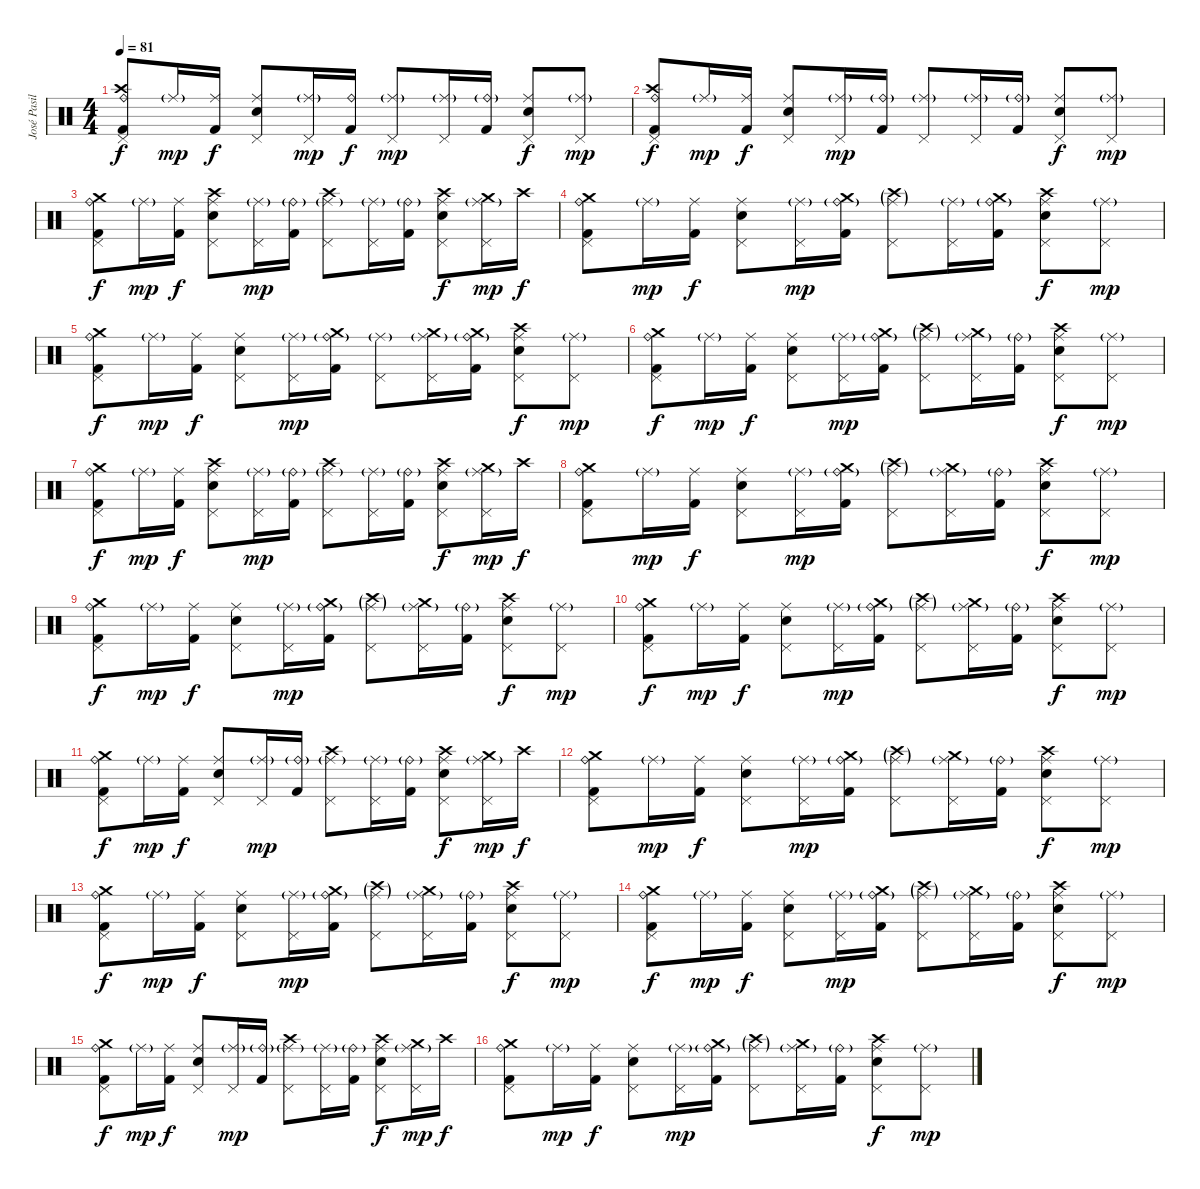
\track ("José Pasillas [Drums]" "José Pasil") {instrument percussion}
\staff {score}
\articulation defaults
\ts (4 4)
\tempo 81
\clef neutral
\ks c
("Kick (hit) 2" "Crash high (hit)" "Ride (bell)" "Pedal Hi-Hat (hit)").8{dy f} "Ride (middle)"{g}.16{dy mp} ("Kick (hit) 2" "Ride (middle)").16{dy f} ("Electric Snare (hit)" "Ride (middle)" "Pedal Hi-Hat (hit)").8 ("Ride (middle)"{g} "Pedal Hi-Hat (hit)").16{dy mp} ("Kick (hit) 2" "Ride (bell)").16{dy f} ("Ride (middle)"{g} "Pedal Hi-Hat (hit)").8{dy mp} ("Ride (middle)"{g} "Pedal Hi-Hat (hit)").16 ("Kick (hit) 2" "Ride (bell)"{g}).16 ("Electric Snare (hit)" "Ride (middle)" "Pedal Hi-Hat (hit)").8{dy f} ("Ride (middle)"{g} "Pedal Hi-Hat (hit)").8{dy mp} |
("Kick (hit) 2" "Crash high (hit)" "Ride (bell)" "Pedal Hi-Hat (hit)").8{dy f} "Ride (middle)"{g}.16{dy mp} ("Kick (hit) 2" "Ride (middle)").16{dy f} ("Electric Snare (hit)" "Ride (middle)" "Pedal Hi-Hat (hit)").8 ("Ride (middle)"{g} "Pedal Hi-Hat (hit)").16{dy mp} ("Kick (hit) 2" "Ride (bell)"{g}).16 ("Ride (middle)"{g} "Pedal Hi-Hat (hit)").8 ("Ride (middle)"{g} "Pedal Hi-Hat (hit)").16 ("Kick (hit) 2" "Ride (bell)"{g}).16 ("Electric Snare (hit)" "Ride (middle)" "Pedal Hi-Hat (hit)").8{dy f} ("Ride (middle)"{g} "Pedal Hi-Hat (hit)").8{dy mp} |
("Kick (hit) 2" "Crash medium (hit)" "Ride (bell)" "Pedal Hi-Hat (hit)").8{dy f} "Ride (middle)"{g}.16{dy mp} ("Kick (hit) 2" "Ride (middle)").16{dy f} ("Electric Snare (hit)" "Crash high (hit)" "Ride (middle)" "Pedal Hi-Hat (hit)").8 ("Ride (middle)"{g} "Pedal Hi-Hat (hit)").16{dy mp} ("Kick (hit) 2" "Ride (bell)"{g}).16 ("Crash high (hit)" "Ride (middle)"{g} "Pedal Hi-Hat (hit)").8 ("Ride (middle)"{g} "Pedal Hi-Hat (hit)").16 ("Kick (hit) 2" "Ride (bell)"{g}).16 ("Electric Snare (hit)" "Crash high (hit)" "Ride (middle)" "Pedal Hi-Hat (hit)").8{dy f} ("Crash medium (hit)" "Ride (middle)"{g} "Pedal Hi-Hat (hit)").16{dy mp} "Crash high (hit)".16{dy f} |
("Kick (hit) 2" "Crash medium (hit)" "Ride (bell)" "Pedal Hi-Hat (hit)").8 "Ride (middle)"{g}.16{dy mp} ("Kick (hit) 2" "Ride (middle)").16{dy f} ("Electric Snare (hit)" "Ride (middle)" "Pedal Hi-Hat (hit)").8 ("Ride (middle)"{g} "Pedal Hi-Hat (hit)").16{dy mp} ("Kick (hit) 2" "Crash medium (hit)" "Ride (bell)"{g}).16 ("Crash high (hit)"{g} "Ride (middle)"{g} "Pedal Hi-Hat (hit)").8 ("Ride (middle)"{g} "Pedal Hi-Hat (hit)").16 ("Kick (hit) 2" "Crash medium (hit)" "Ride (bell)"{g}).16 ("Electric Snare (hit)" "Crash high (hit)" "Ride (middle)" "Pedal Hi-Hat (hit)").8{dy f} ("Ride (middle)"{g} "Pedal Hi-Hat (hit)").8{dy mp} |
("Kick (hit) 2" "Crash medium (hit)" "Ride (bell)" "Pedal Hi-Hat (hit)").8{dy f} "Ride (middle)"{g}.16{dy mp} ("Kick (hit) 2" "Ride (middle)").16{dy f} ("Electric Snare (hit)" "Ride (middle)" "Pedal Hi-Hat (hit)").8 ("Ride (middle)"{g} "Pedal Hi-Hat (hit)").16{dy mp} ("Kick (hit) 2" "Crash medium (hit)" "Ride (bell)"{g}).16 ("Ride (middle)"{g} "Pedal Hi-Hat (hit)").8 ("Crash medium (hit)" "Ride (middle)"{g} "Pedal Hi-Hat (hit)").16 ("Kick (hit) 2" "Crash medium (hit)" "Ride (bell)"{g}).16 ("Electric Snare (hit)" "Crash high (hit)" "Ride (middle)" "Pedal Hi-Hat (hit)").8{dy f} ("Ride (middle)"{g} "Pedal Hi-Hat (hit)").8{dy mp} |
("Kick (hit) 2" "Crash medium (hit)" "Ride (bell)" "Pedal Hi-Hat (hit)").8{dy f} "Ride (middle)"{g}.16{dy mp} ("Kick (hit) 2" "Ride (middle)").16{dy f} ("Electric Snare (hit)" "Ride (middle)" "Pedal Hi-Hat (hit)").8 ("Ride (middle)"{g} "Pedal Hi-Hat (hit)").16{dy mp} ("Kick (hit) 2" "Crash medium (hit)" "Ride (bell)"{g}).16 ("Crash high (hit)"{g} "Ride (middle)"{g} "Pedal Hi-Hat (hit)").8 ("Crash medium (hit)" "Ride (middle)"{g} "Pedal Hi-Hat (hit)").16 ("Kick (hit) 2" "Ride (bell)"{g}).16 ("Electric Snare (hit)" "Crash high (hit)" "Ride (middle)" "Pedal Hi-Hat (hit)").8{dy f} ("Ride (middle)"{g} "Pedal Hi-Hat (hit)").8{dy mp} |
("Kick (hit) 2" "Crash medium (hit)" "Ride (bell)" "Pedal Hi-Hat (hit)").8{dy f} "Ride (middle)"{g}.16{dy mp} ("Kick (hit) 2" "Ride (middle)").16{dy f} ("Electric Snare (hit)" "Crash high (hit)" "Ride (middle)" "Pedal Hi-Hat (hit)").8 ("Ride (middle)"{g} "Pedal Hi-Hat (hit)").16{dy mp} ("Kick (hit) 2" "Ride (bell)"{g}).16 ("Crash high (hit)" "Ride (middle)"{g} "Pedal Hi-Hat (hit)").8 ("Ride (middle)"{g} "Pedal Hi-Hat (hit)").16 ("Kick (hit) 2" "Ride (bell)"{g}).16 ("Electric Snare (hit)" "Crash high (hit)" "Ride (middle)" "Pedal Hi-Hat (hit)").8{dy f} ("Crash medium (hit)" "Ride (middle)"{g} "Pedal Hi-Hat (hit)").16{dy mp} "Crash high (hit)".16{dy f} |
("Kick (hit) 2" "Crash medium (hit)" "Ride (bell)" "Pedal Hi-Hat (hit)").8 "Ride (middle)"{g}.16{dy mp} ("Kick (hit) 2" "Ride (middle)").16{dy f} ("Electric Snare (hit)" "Ride (middle)" "Pedal Hi-Hat (hit)").8 ("Ride (middle)"{g} "Pedal Hi-Hat (hit)").16{dy mp} ("Kick (hit) 2" "Crash medium (hit)" "Ride (bell)"{g}).16 ("Crash high (hit)"{g} "Ride (middle)"{g} "Pedal Hi-Hat (hit)").8 ("Crash medium (hit)" "Ride (middle)"{g} "Pedal Hi-Hat (hit)").16 ("Kick (hit) 2" "Ride (bell)"{g}).16 ("Electric Snare (hit)" "Crash high (hit)" "Ride (middle)" "Pedal Hi-Hat (hit)").8{dy f} ("Ride (middle)"{g} "Pedal Hi-Hat (hit)").8{dy mp} |
("Kick (hit) 2" "Crash medium (hit)" "Ride (bell)" "Pedal Hi-Hat (hit)").8{dy f} "Ride (middle)"{g}.16{dy mp} ("Kick (hit) 2" "Ride (middle)").16{dy f} ("Electric Snare (hit)" "Ride (middle)" "Pedal Hi-Hat (hit)").8 ("Ride (middle)"{g} "Pedal Hi-Hat (hit)").16{dy mp} ("Kick (hit) 2" "Crash medium (hit)" "Ride (bell)"{g}).16 ("Crash high (hit)"{g} "Ride (middle)"{g} "Pedal Hi-Hat (hit)").8 ("Crash medium (hit)" "Ride (middle)"{g} "Pedal Hi-Hat (hit)").16 ("Kick (hit) 2" "Ride (bell)"{g}).16 ("Electric Snare (hit)" "Crash high (hit)" "Ride (middle)" "Pedal Hi-Hat (hit)").8{dy f} ("Ride (middle)"{g} "Pedal Hi-Hat (hit)").8{dy mp} |
("Kick (hit) 2" "Crash medium (hit)" "Ride (bell)" "Pedal Hi-Hat (hit)").8{dy f} "Ride (middle)"{g}.16{dy mp} ("Kick (hit) 2" "Ride (middle)").16{dy f} ("Electric Snare (hit)" "Ride (middle)" "Pedal Hi-Hat (hit)").8 ("Ride (middle)"{g} "Pedal Hi-Hat (hit)").16{dy mp} ("Kick (hit) 2" "Crash medium (hit)" "Ride (bell)"{g}).16 ("Crash high (hit)"{g} "Ride (middle)"{g} "Pedal Hi-Hat (hit)").8 ("Crash medium (hit)" "Ride (middle)"{g} "Pedal Hi-Hat (hit)").16 ("Kick (hit) 2" "Ride (bell)"{g}).16 ("Electric Snare (hit)" "Crash high (hit)" "Ride (middle)" "Pedal Hi-Hat (hit)").8{dy f} ("Ride (middle)"{g} "Pedal Hi-Hat (hit)").8{dy mp} |
("Kick (hit) 2" "Crash medium (hit)" "Ride (bell)" "Pedal Hi-Hat (hit)").8{dy f} "Ride (middle)"{g}.16{dy mp} ("Kick (hit) 2" "Ride (middle)").16{dy f} ("Electric Snare (hit)" "Ride (middle)" "Pedal Hi-Hat (hit)").8 ("Ride (middle)"{g} "Pedal Hi-Hat (hit)").16{dy mp} ("Kick (hit) 2" "Ride (bell)"{g}).16 ("Crash high (hit)" "Ride (middle)"{g} "Pedal Hi-Hat (hit)").8 ("Ride (middle)"{g} "Pedal Hi-Hat (hit)").16 ("Kick (hit) 2" "Ride (bell)"{g}).16 ("Electric Snare (hit)" "Crash high (hit)" "Ride (middle)" "Pedal Hi-Hat (hit)").8{dy f} ("Crash medium (hit)" "Ride (middle)"{g} "Pedal Hi-Hat (hit)").16{dy mp} "Crash high (hit)".16{dy f} |
("Kick (hit) 2" "Crash medium (hit)" "Ride (bell)" "Pedal Hi-Hat (hit)").8 "Ride (middle)"{g}.16{dy mp} ("Kick (hit) 2" "Ride (middle)").16{dy f} ("Electric Snare (hit)" "Ride (middle)" "Pedal Hi-Hat (hit)").8 ("Ride (middle)"{g} "Pedal Hi-Hat (hit)").16{dy mp} ("Kick (hit) 2" "Crash medium (hit)" "Ride (bell)"{g}).16 ("Crash high (hit)"{g} "Ride (middle)"{g} "Pedal Hi-Hat (hit)").8 ("Crash medium (hit)" "Ride (middle)"{g} "Pedal Hi-Hat (hit)").16 ("Kick (hit) 2" "Ride (bell)"{g}).16 ("Electric Snare (hit)" "Crash high (hit)" "Ride (middle)" "Pedal Hi-Hat (hit)").8{dy f} ("Ride (middle)"{g} "Pedal Hi-Hat (hit)").8{dy mp} |
("Kick (hit) 2" "Crash medium (hit)" "Ride (bell)" "Pedal Hi-Hat (hit)").8{dy f} "Ride (middle)"{g}.16{dy mp} ("Kick (hit) 2" "Ride (middle)").16{dy f} ("Electric Snare (hit)" "Ride (middle)" "Pedal Hi-Hat (hit)").8 ("Ride (middle)"{g} "Pedal Hi-Hat (hit)").16{dy mp} ("Kick (hit) 2" "Crash medium (hit)" "Ride (bell)"{g}).16 ("Crash high (hit)"{g} "Ride (middle)"{g} "Pedal Hi-Hat (hit)").8 ("Crash medium (hit)" "Ride (middle)"{g} "Pedal Hi-Hat (hit)").16 ("Kick (hit) 2" "Ride (bell)"{g}).16 ("Electric Snare (hit)" "Crash high (hit)" "Ride (middle)" "Pedal Hi-Hat (hit)").8{dy f} ("Ride (middle)"{g} "Pedal Hi-Hat (hit)").8{dy mp} |
("Kick (hit) 2" "Crash medium (hit)" "Ride (bell)" "Pedal Hi-Hat (hit)").8{dy f} "Ride (middle)"{g}.16{dy mp} ("Kick (hit) 2" "Ride (middle)").16{dy f} ("Electric Snare (hit)" "Ride (middle)" "Pedal Hi-Hat (hit)").8 ("Ride (middle)"{g} "Pedal Hi-Hat (hit)").16{dy mp} ("Kick (hit) 2" "Crash medium (hit)" "Ride (bell)"{g}).16 ("Crash high (hit)"{g} "Ride (middle)"{g} "Pedal Hi-Hat (hit)").8 ("Crash medium (hit)" "Ride (middle)"{g} "Pedal Hi-Hat (hit)").16 ("Kick (hit) 2" "Ride (bell)"{g}).16 ("Electric Snare (hit)" "Crash high (hit)" "Ride (middle)" "Pedal Hi-Hat (hit)").8{dy f} ("Ride (middle)"{g} "Pedal Hi-Hat (hit)").8{dy mp} |
("Kick (hit) 2" "Crash medium (hit)" "Ride (bell)" "Pedal Hi-Hat (hit)").8{dy f} "Ride (middle)"{g}.16{dy mp} ("Kick (hit) 2" "Ride (middle)").16{dy f} ("Electric Snare (hit)" "Ride (middle)" "Pedal Hi-Hat (hit)").8 ("Ride (middle)"{g} "Pedal Hi-Hat (hit)").16{dy mp} ("Kick (hit) 2" "Ride (bell)"{g}).16 ("Crash high (hit)" "Ride (middle)"{g} "Pedal Hi-Hat (hit)").8 ("Ride (middle)"{g} "Pedal Hi-Hat (hit)").16 ("Kick (hit) 2" "Ride (bell)"{g}).16 ("Electric Snare (hit)" "Crash high (hit)" "Ride (middle)" "Pedal Hi-Hat (hit)").8{dy f} ("Crash medium (hit)" "Ride (middle)"{g} "Pedal Hi-Hat (hit)").16{dy mp} "Crash high (hit)".16{dy f} |
("Kick (hit) 2" "Crash medium (hit)" "Ride (bell)" "Pedal Hi-Hat (hit)").8 "Ride (middle)"{g}.16{dy mp} ("Kick (hit) 2" "Ride (middle)").16{dy f} ("Electric Snare (hit)" "Ride (middle)" "Pedal Hi-Hat (hit)").8 ("Ride (middle)"{g} "Pedal Hi-Hat (hit)").16{dy mp} ("Kick (hit) 2" "Crash medium (hit)" "Ride (bell)"{g}).16 ("Crash high (hit)"{g} "Ride (middle)"{g} "Pedal Hi-Hat (hit)").8 ("Crash medium (hit)" "Ride (middle)"{g} "Pedal Hi-Hat (hit)").16 ("Kick (hit) 2" "Ride (bell)"{g}).16 ("Electric Snare (hit)" "Crash high (hit)" "Ride (middle)" "Pedal Hi-Hat (hit)").8{dy f} ("Ride (middle)"{g} "Pedal Hi-Hat (hit)").8{dy mp}
